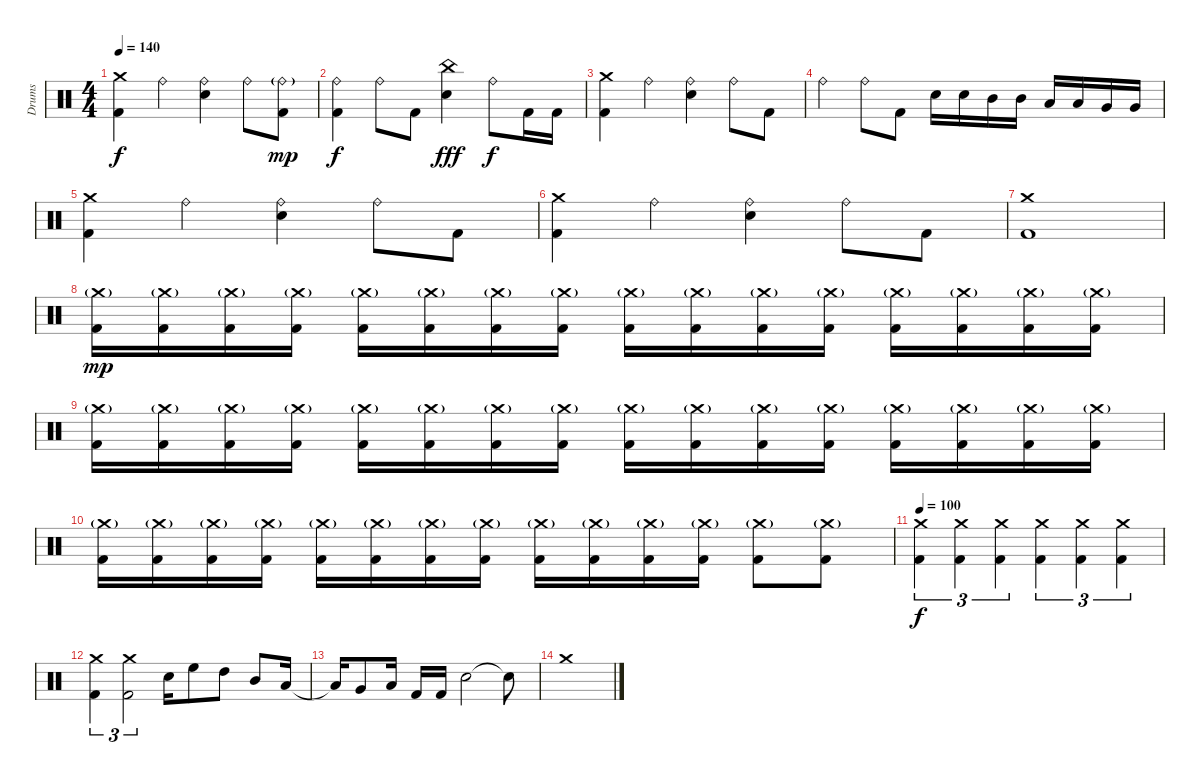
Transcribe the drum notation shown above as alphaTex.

\track ("Drums" "Drums") {instrument percussion}
\staff {score}
\articulation defaults
\ts (4 4)
\tempo 140
\clef neutral
\ks c
("Crash medium (hit)" "Kick (hit) 2").4{dy f} "Ride (bell)".4 ("Ride (bell)" "Electric Snare (hit)").4 "Ride (bell)".8 ("Ride (bell)"{g} "Kick (hit) 2").8{dy mp} |
("Ride (bell)" "Kick (hit) 2").4{dy f} "Ride (bell)".8 "Kick (hit) 2".8 ("China (hit)" "Electric Snare (hit)").4{dy fff} "Ride (bell)".8{dy f} "Kick (hit) 2".16 "Kick (hit) 2".16 |
("Crash medium (hit)" "Kick (hit) 2").4 "Ride (bell)".4 ("Ride (bell)" "Electric Snare (hit)").4 "Ride (bell)".8 "Kick (hit) 2".8 |
"Ride (bell)".4 "Ride (bell)".8 "Kick (hit) 2".8 "Electric Snare (hit)".16 "Electric Snare (hit)".16 "Mid Tom (hit)".16 "Mid Tom (hit)".16 "Low Tom (hit)".16 "Low Tom (hit)".16 "Very Low Tom (hit)".16 "Very Low Tom (hit)".16 |
("Crash medium (hit)" "Kick (hit) 2").4 "Ride (bell)".4 ("Ride (bell)" "Electric Snare (hit)").4 "Ride (bell)".8 "Kick (hit) 2".8 |
("Crash medium (hit)" "Kick (hit) 2").4 "Ride (bell)".4 ("Ride (bell)" "Electric Snare (hit)").4 "Ride (bell)".8 "Kick (hit) 2".8 |
("Crash medium (hit)" "Kick (hit) 2").1 |
("Crash medium (hit)"{g} "Kick (hit) 2").16{dy mp} ("Crash medium (hit)"{g} "Kick (hit) 2").16 ("Crash medium (hit)"{g} "Kick (hit) 2").16 ("Crash medium (hit)"{g} "Kick (hit) 2").16 ("Crash medium (hit)"{g} "Kick (hit) 2").16 ("Crash medium (hit)"{g} "Kick (hit) 2").16 ("Crash medium (hit)"{g} "Kick (hit) 2").16 ("Crash medium (hit)"{g} "Kick (hit) 2").16 ("Crash medium (hit)"{g} "Kick (hit) 2").16 ("Crash medium (hit)"{g} "Kick (hit) 2").16 ("Crash medium (hit)"{g} "Kick (hit) 2").16 ("Crash medium (hit)"{g} "Kick (hit) 2").16 ("Crash medium (hit)"{g} "Kick (hit) 2").16 ("Crash medium (hit)"{g} "Kick (hit) 2").16 ("Crash medium (hit)"{g} "Kick (hit) 2").16 ("Crash medium (hit)"{g} "Kick (hit) 2").16 |
("Crash medium (hit)"{g} "Kick (hit) 2").16 ("Crash medium (hit)"{g} "Kick (hit) 2").16 ("Crash medium (hit)"{g} "Kick (hit) 2").16 ("Crash medium (hit)"{g} "Kick (hit) 2").16 ("Crash medium (hit)"{g} "Kick (hit) 2").16 ("Crash medium (hit)"{g} "Kick (hit) 2").16 ("Crash medium (hit)"{g} "Kick (hit) 2").16 ("Crash medium (hit)"{g} "Kick (hit) 2").16 ("Crash medium (hit)"{g} "Kick (hit) 2").16 ("Crash medium (hit)"{g} "Kick (hit) 2").16 ("Crash medium (hit)"{g} "Kick (hit) 2").16 ("Crash medium (hit)"{g} "Kick (hit) 2").16 ("Crash medium (hit)"{g} "Kick (hit) 2").16 ("Crash medium (hit)"{g} "Kick (hit) 2").16 ("Crash medium (hit)"{g} "Kick (hit) 2").16 ("Crash medium (hit)"{g} "Kick (hit) 2").16 |
("Crash medium (hit)"{g} "Kick (hit) 2").16 ("Crash medium (hit)"{g} "Kick (hit) 2").16 ("Crash medium (hit)"{g} "Kick (hit) 2").16 ("Crash medium (hit)"{g} "Kick (hit) 2").16 ("Crash medium (hit)"{g} "Kick (hit) 2").16 ("Crash medium (hit)"{g} "Kick (hit) 2").16 ("Crash medium (hit)"{g} "Kick (hit) 2").16 ("Crash medium (hit)"{g} "Kick (hit) 2").16 ("Crash medium (hit)"{g} "Kick (hit) 2").16 ("Crash medium (hit)"{g} "Kick (hit) 2").16 ("Crash medium (hit)"{g} "Kick (hit) 2").16 ("Crash medium (hit)"{g} "Kick (hit) 2").16 ("Crash medium (hit)"{g} "Kick (hit) 2").8 ("Crash medium (hit)"{g} "Kick (hit) 2").8 |
\tempo 100
("Crash medium (hit)" "Kick (hit) 2").4{tu (3 2) dy f} ("Crash medium (hit)" "Kick (hit) 2").4{tu (3 2)} ("Crash medium (hit)" "Kick (hit) 2").4{tu (3 2)} ("Crash medium (hit)" "Kick (hit) 2").4{tu (3 2)} ("Crash medium (hit)" "Kick (hit) 2").4{tu (3 2)} ("Crash medium (hit)" "Kick (hit) 2").4{tu (3 2)} |
("Crash medium (hit)" "Kick (hit) 2").4{tu (3 2)} ("Crash medium (hit)" "Kick (hit) 2").2{tu (3 2)} "Electric Snare (hit)".16 "High Floor Tom (hit)".8 "High Tom (hit)".8 "Mid Tom (hit)".8 "Low Tom (hit)".16 |
"Low Floor Tom (hit)"{t}.16 "Very Low Tom (hit)".8 "Low Floor Tom (hit)".16 "Kick (hit) 2".16 "Kick (hit) 2".16 "Electric Snare (hit)".2 "Snare (hit)"{t}.8 |
"Crash medium (hit)".1
